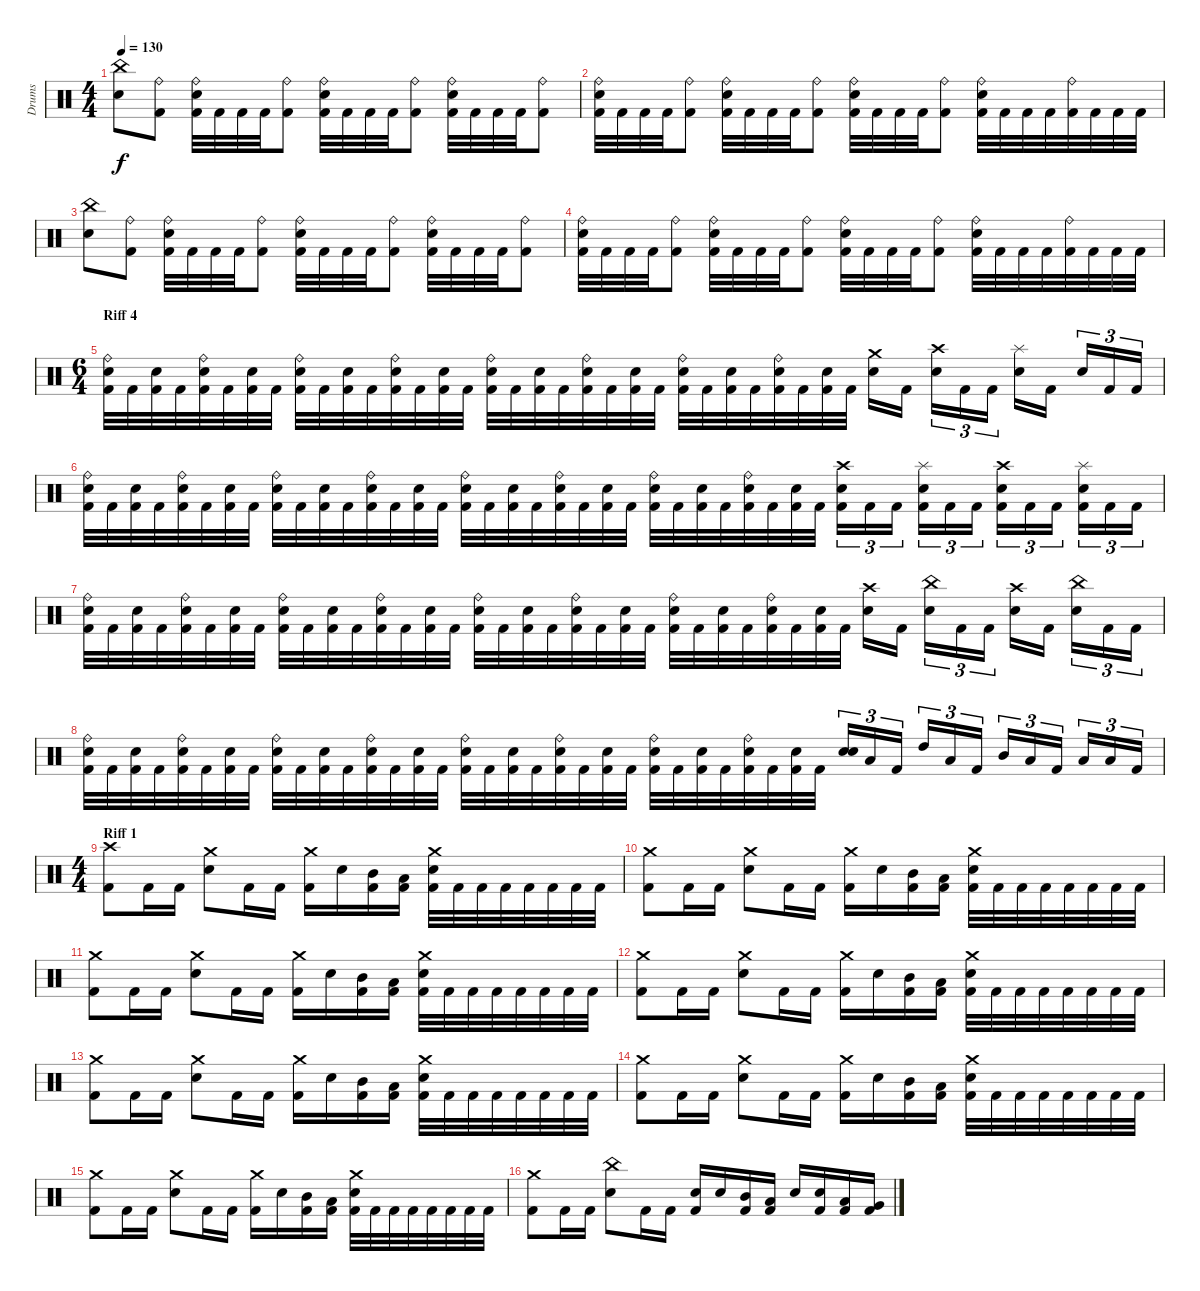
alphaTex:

\track ("Drums" "Drums") {instrument percussion}
\staff {score}
\articulation defaults
\ts (4 4)
\tempo 130
\clef neutral
\ks c
("Snare (hit) 2" "China (hit)").8{dy f} ("Kick (hit) 2" "Ride (bell)").8 ("Kick (hit) 2" "Snare (hit) 2" "Ride (bell)").32 "Kick (hit) 2".32 "Kick (hit) 2".32 "Kick (hit) 2".32 ("Kick (hit) 2" "Ride (bell)").8 ("Kick (hit) 2" "Snare (hit) 2" "Ride (bell)").32 "Kick (hit) 2".32 "Kick (hit) 2".32 "Kick (hit) 2".32 ("Kick (hit) 2" "Ride (bell)").8 ("Kick (hit) 2" "Snare (hit) 2" "Ride (bell)").32 "Kick (hit) 2".32 "Kick (hit) 2".32 "Kick (hit) 2".32 ("Kick (hit) 2" "Ride (bell)").8 |
("Kick (hit) 2" "Snare (hit) 2" "Ride (bell)").32 "Kick (hit) 2".32 "Kick (hit) 2".32 "Kick (hit) 2".32 ("Kick (hit) 2" "Ride (bell)").8 ("Kick (hit) 2" "Snare (hit) 2" "Ride (bell)").32 "Kick (hit) 2".32 "Kick (hit) 2".32 "Kick (hit) 2".32 ("Kick (hit) 2" "Ride (bell)").8 ("Kick (hit) 2" "Snare (hit) 2" "Ride (bell)").32 "Kick (hit) 2".32 "Kick (hit) 2".32 "Kick (hit) 2".32 ("Kick (hit) 2" "Ride (bell)").8 ("Kick (hit) 2" "Snare (hit) 2" "Ride (bell)").32 "Kick (hit) 2".32 "Kick (hit) 2".32 "Kick (hit) 2".32 ("Kick (hit) 2" "Ride (bell)").32 "Kick (hit) 2".32 "Kick (hit) 2".32 "Kick (hit) 2".32 |
("Snare (hit) 2" "China (hit)").8 ("Kick (hit) 2" "Ride (bell)").8 ("Kick (hit) 2" "Snare (hit) 2" "Ride (bell)").32 "Kick (hit) 2".32 "Kick (hit) 2".32 "Kick (hit) 2".32 ("Kick (hit) 2" "Ride (bell)").8 ("Kick (hit) 2" "Snare (hit) 2" "Ride (bell)").32 "Kick (hit) 2".32 "Kick (hit) 2".32 "Kick (hit) 2".32 ("Kick (hit) 2" "Ride (bell)").8 ("Kick (hit) 2" "Snare (hit) 2" "Ride (bell)").32 "Kick (hit) 2".32 "Kick (hit) 2".32 "Kick (hit) 2".32 ("Kick (hit) 2" "Ride (bell)").8 |
("Kick (hit) 2" "Snare (hit) 2" "Ride (bell)").32 "Kick (hit) 2".32 "Kick (hit) 2".32 "Kick (hit) 2".32 ("Kick (hit) 2" "Ride (bell)").8 ("Kick (hit) 2" "Snare (hit) 2" "Ride (bell)").32 "Kick (hit) 2".32 "Kick (hit) 2".32 "Kick (hit) 2".32 ("Kick (hit) 2" "Ride (bell)").8 ("Kick (hit) 2" "Snare (hit) 2" "Ride (bell)").32 "Kick (hit) 2".32 "Kick (hit) 2".32 "Kick (hit) 2".32 ("Kick (hit) 2" "Ride (bell)").8 ("Kick (hit) 2" "Snare (hit) 2" "Ride (bell)").32 "Kick (hit) 2".32 "Kick (hit) 2".32 "Kick (hit) 2".32 ("Kick (hit) 2" "Ride (bell)").32 "Kick (hit) 2".32 "Kick (hit) 2".32 "Kick (hit) 2".32 |
\ts (6 4)
\section ("" "Riff 4")
("Kick (hit) 2" "Snare (hit) 2" "Ride (bell)").32 "Kick (hit) 2".32 ("Kick (hit) 2" "Snare (hit) 2").32 "Kick (hit) 2".32 ("Kick (hit) 2" "Snare (hit) 2" "Ride (bell)").32 "Kick (hit) 2".32 ("Kick (hit) 2" "Snare (hit) 2").32 "Kick (hit) 2".32 ("Kick (hit) 2" "Snare (hit) 2" "Ride (bell)").32 "Kick (hit) 2".32 ("Kick (hit) 2" "Snare (hit) 2").32 "Kick (hit) 2".32 ("Kick (hit) 2" "Snare (hit) 2" "Ride (bell)").32 "Kick (hit) 2".32 ("Kick (hit) 2" "Snare (hit) 2").32 "Kick (hit) 2".32 ("Kick (hit) 2" "Snare (hit) 2" "Ride (bell)").32 "Kick (hit) 2".32 ("Kick (hit) 2" "Snare (hit) 2").32 "Kick (hit) 2".32 ("Kick (hit) 2" "Snare (hit) 2" "Ride (bell)").32 "Kick (hit) 2".32 ("Kick (hit) 2" "Snare (hit) 2").32 "Kick (hit) 2".32 ("Kick (hit) 2" "Snare (hit) 2" "Ride (bell)").32 "Kick (hit) 2".32 ("Kick (hit) 2" "Snare (hit) 2").32 "Kick (hit) 2".32 ("Kick (hit) 2" "Snare (hit) 2" "Ride (bell)").32 "Kick (hit) 2".32 ("Kick (hit) 2" "Snare (hit) 2").32 "Kick (hit) 2".32 ("Snare (hit) 2" "Crash medium (hit)").16 "Kick (hit) 2".16 ("Snare (hit) 2" "Crash high (hit)").16{tu (3 2)} "Kick (hit) 2".16{tu (3 2)} "Kick (hit) 2".16{tu (3 2)} ("Snare (hit) 2" "Splash (hit)").16 "Kick (hit) 2".16 "Snare (hit) 2".16{tu (3 2)} "Kick (hit) 2".16{tu (3 2)} "Kick (hit) 2".16{tu (3 2)} |
("Kick (hit) 2" "Snare (hit) 2" "Ride (bell)").32 "Kick (hit) 2".32 ("Kick (hit) 2" "Snare (hit) 2").32 "Kick (hit) 2".32 ("Kick (hit) 2" "Snare (hit) 2" "Ride (bell)").32 "Kick (hit) 2".32 ("Kick (hit) 2" "Snare (hit) 2").32 "Kick (hit) 2".32 ("Kick (hit) 2" "Snare (hit) 2" "Ride (bell)").32 "Kick (hit) 2".32 ("Kick (hit) 2" "Snare (hit) 2").32 "Kick (hit) 2".32 ("Kick (hit) 2" "Snare (hit) 2" "Ride (bell)").32 "Kick (hit) 2".32 ("Kick (hit) 2" "Snare (hit) 2").32 "Kick (hit) 2".32 ("Kick (hit) 2" "Snare (hit) 2" "Ride (bell)").32 "Kick (hit) 2".32 ("Kick (hit) 2" "Snare (hit) 2").32 "Kick (hit) 2".32 ("Kick (hit) 2" "Snare (hit) 2" "Ride (bell)").32 "Kick (hit) 2".32 ("Kick (hit) 2" "Snare (hit) 2").32 "Kick (hit) 2".32 ("Kick (hit) 2" "Snare (hit) 2" "Ride (bell)").32 "Kick (hit) 2".32 ("Kick (hit) 2" "Snare (hit) 2").32 "Kick (hit) 2".32 ("Kick (hit) 2" "Snare (hit) 2" "Ride (bell)").32 "Kick (hit) 2".32 ("Kick (hit) 2" "Snare (hit) 2").32 "Kick (hit) 2".32 ("Kick (hit) 2" "Snare (hit) 2" "Crash high (hit)").16{tu (3 2)} "Kick (hit) 2".16{tu (3 2)} "Kick (hit) 2".16{tu (3 2)} ("Kick (hit) 2" "Snare (hit) 2" "Splash (hit)").16{tu (3 2)} "Kick (hit) 2".16{tu (3 2)} "Kick (hit) 2".16{tu (3 2)} ("Kick (hit) 2" "Snare (hit) 2" "Crash high (hit)").16{tu (3 2)} "Kick (hit) 2".16{tu (3 2)} "Kick (hit) 2".16{tu (3 2)} ("Kick (hit) 2" "Snare (hit) 2" "Splash (hit)").16{tu (3 2)} "Kick (hit) 2".16{tu (3 2)} "Kick (hit) 2".16{tu (3 2)} |
("Kick (hit) 2" "Snare (hit) 2" "Ride (bell)").32 "Kick (hit) 2".32 ("Kick (hit) 2" "Snare (hit) 2").32 "Kick (hit) 2".32 ("Kick (hit) 2" "Snare (hit) 2" "Ride (bell)").32 "Kick (hit) 2".32 ("Kick (hit) 2" "Snare (hit) 2").32 "Kick (hit) 2".32 ("Kick (hit) 2" "Snare (hit) 2" "Ride (bell)").32 "Kick (hit) 2".32 ("Kick (hit) 2" "Snare (hit) 2").32 "Kick (hit) 2".32 ("Kick (hit) 2" "Snare (hit) 2" "Ride (bell)").32 "Kick (hit) 2".32 ("Kick (hit) 2" "Snare (hit) 2").32 "Kick (hit) 2".32 ("Kick (hit) 2" "Snare (hit) 2" "Ride (bell)").32 "Kick (hit) 2".32 ("Kick (hit) 2" "Snare (hit) 2").32 "Kick (hit) 2".32 ("Kick (hit) 2" "Snare (hit) 2" "Ride (bell)").32 "Kick (hit) 2".32 ("Kick (hit) 2" "Snare (hit) 2").32 "Kick (hit) 2".32 ("Kick (hit) 2" "Snare (hit) 2" "Ride (bell)").32 "Kick (hit) 2".32 ("Kick (hit) 2" "Snare (hit) 2").32 "Kick (hit) 2".32 ("Kick (hit) 2" "Snare (hit) 2" "Ride (bell)").32 "Kick (hit) 2".32 ("Kick (hit) 2" "Snare (hit) 2").32 "Kick (hit) 2".32 ("Snare (hit) 2" "Crash high (hit)").16 "Kick (hit) 2".16 ("Snare (hit) 2" "China (hit)").16{tu (3 2)} "Kick (hit) 2".16{tu (3 2)} "Kick (hit) 2".16{tu (3 2)} ("Snare (hit) 2" "Crash high (hit)").16 "Kick (hit) 2".16 ("Snare (hit) 2" "China (hit)").16{tu (3 2)} "Kick (hit) 2".16{tu (3 2)} "Kick (hit) 2".16{tu (3 2)} |
("Kick (hit) 2" "Snare (hit) 2" "Ride (bell)").32 "Kick (hit) 2".32 ("Kick (hit) 2" "Snare (hit) 2").32 "Kick (hit) 2".32 ("Kick (hit) 2" "Snare (hit) 2" "Ride (bell)").32 "Kick (hit) 2".32 ("Kick (hit) 2" "Snare (hit) 2").32 "Kick (hit) 2".32 ("Kick (hit) 2" "Snare (hit) 2" "Ride (bell)").32 "Kick (hit) 2".32 ("Kick (hit) 2" "Snare (hit) 2").32 "Kick (hit) 2".32 ("Kick (hit) 2" "Snare (hit) 2" "Ride (bell)").32 "Kick (hit) 2".32 ("Kick (hit) 2" "Snare (hit) 2").32 "Kick (hit) 2".32 ("Kick (hit) 2" "Snare (hit) 2" "Ride (bell)").32 "Kick (hit) 2".32 ("Kick (hit) 2" "Snare (hit) 2").32 "Kick (hit) 2".32 ("Kick (hit) 2" "Snare (hit) 2" "Ride (bell)").32 "Kick (hit) 2".32 ("Kick (hit) 2" "Snare (hit) 2").32 "Kick (hit) 2".32 ("Kick (hit) 2" "Snare (hit) 2" "Ride (bell)").32 "Kick (hit) 2".32 ("Kick (hit) 2" "Snare (hit) 2").32 "Kick (hit) 2".32 ("Kick (hit) 2" "Snare (hit) 2" "Ride (bell)").32 "Kick (hit) 2".32 ("Kick (hit) 2" "Snare (hit) 2").32 "Kick (hit) 2".32 ("Snare (hit) 2" "Electric Snare (hit)").16{tu (3 2)} "Low Floor Tom (hit)".16{tu (3 2)} "Kick (hit) 2".16{tu (3 2)} "High Tom (hit)".16{tu (3 2)} "Low Floor Tom (hit)".16{tu (3 2)} "Kick (hit) 2".16{tu (3 2)} "Mid Tom (hit)".16{tu (3 2)} "Low Floor Tom (hit)".16{tu (3 2)} "Kick (hit) 2".16{tu (3 2)} "Low Tom (hit)".16{tu (3 2)} "Low Floor Tom (hit)".16{tu (3 2)} "Kick (hit) 2".16{tu (3 2)} |
\ts (4 4)
\section ("" "Riff 1")
("Kick (hit) 2" "Crash high (hit)").8 "Kick (hit) 2".16 "Kick (hit) 2".16 ("Snare (hit) 2" "Crash medium (hit)").8 "Kick (hit) 2".16 "Kick (hit) 2".16 ("Kick (hit) 2" "Crash medium (hit)").16 "Snare (hit) 2".16 ("Kick (hit) 2" "Mid Tom (hit)").16 ("Kick (hit) 2" "Low Tom (hit)").16 ("Kick (hit) 2" "Snare (hit) 2" "Crash medium (hit)").32 "Kick (hit) 2".32 "Kick (hit) 2".32 "Kick (hit) 2".32 "Kick (hit) 2".32 "Kick (hit) 2".32 "Kick (hit) 2".32 "Kick (hit) 2".32 |
("Kick (hit) 2" "Crash medium (hit)").8 "Kick (hit) 2".16 "Kick (hit) 2".16 ("Snare (hit) 2" "Crash medium (hit)").8 "Kick (hit) 2".16 "Kick (hit) 2".16 ("Kick (hit) 2" "Crash medium (hit)").16 "Snare (hit) 2".16 ("Kick (hit) 2" "Mid Tom (hit)").16 ("Kick (hit) 2" "Low Tom (hit)").16 ("Kick (hit) 2" "Snare (hit) 2" "Crash medium (hit)").32 "Kick (hit) 2".32 "Kick (hit) 2".32 "Kick (hit) 2".32 "Kick (hit) 2".32 "Kick (hit) 2".32 "Kick (hit) 2".32 "Kick (hit) 2".32 |
("Kick (hit) 2" "Crash medium (hit)").8 "Kick (hit) 2".16 "Kick (hit) 2".16 ("Snare (hit) 2" "Crash medium (hit)").8 "Kick (hit) 2".16 "Kick (hit) 2".16 ("Kick (hit) 2" "Crash medium (hit)").16 "Snare (hit) 2".16 ("Kick (hit) 2" "Mid Tom (hit)").16 ("Kick (hit) 2" "Low Tom (hit)").16 ("Kick (hit) 2" "Snare (hit) 2" "Crash medium (hit)").32 "Kick (hit) 2".32 "Kick (hit) 2".32 "Kick (hit) 2".32 "Kick (hit) 2".32 "Kick (hit) 2".32 "Kick (hit) 2".32 "Kick (hit) 2".32 |
("Kick (hit) 2" "Crash medium (hit)").8 "Kick (hit) 2".16 "Kick (hit) 2".16 ("Snare (hit) 2" "Crash medium (hit)").8 "Kick (hit) 2".16 "Kick (hit) 2".16 ("Kick (hit) 2" "Crash medium (hit)").16 "Snare (hit) 2".16 ("Kick (hit) 2" "Mid Tom (hit)").16 ("Kick (hit) 2" "Low Tom (hit)").16 ("Kick (hit) 2" "Snare (hit) 2" "Crash medium (hit)").32 "Kick (hit) 2".32 "Kick (hit) 2".32 "Kick (hit) 2".32 "Kick (hit) 2".32 "Kick (hit) 2".32 "Kick (hit) 2".32 "Kick (hit) 2".32 |
("Kick (hit) 2" "Crash medium (hit)").8 "Kick (hit) 2".16 "Kick (hit) 2".16 ("Snare (hit) 2" "Crash medium (hit)").8 "Kick (hit) 2".16 "Kick (hit) 2".16 ("Kick (hit) 2" "Crash medium (hit)").16 "Snare (hit) 2".16 ("Kick (hit) 2" "Mid Tom (hit)").16 ("Kick (hit) 2" "Low Tom (hit)").16 ("Kick (hit) 2" "Snare (hit) 2" "Crash medium (hit)").32 "Kick (hit) 2".32 "Kick (hit) 2".32 "Kick (hit) 2".32 "Kick (hit) 2".32 "Kick (hit) 2".32 "Kick (hit) 2".32 "Kick (hit) 2".32 |
("Kick (hit) 2" "Crash medium (hit)").8 "Kick (hit) 2".16 "Kick (hit) 2".16 ("Snare (hit) 2" "Crash medium (hit)").8 "Kick (hit) 2".16 "Kick (hit) 2".16 ("Kick (hit) 2" "Crash medium (hit)").16 "Snare (hit) 2".16 ("Kick (hit) 2" "Mid Tom (hit)").16 ("Kick (hit) 2" "Low Tom (hit)").16 ("Kick (hit) 2" "Snare (hit) 2" "Crash medium (hit)").32 "Kick (hit) 2".32 "Kick (hit) 2".32 "Kick (hit) 2".32 "Kick (hit) 2".32 "Kick (hit) 2".32 "Kick (hit) 2".32 "Kick (hit) 2".32 |
("Kick (hit) 2" "Crash medium (hit)").8 "Kick (hit) 2".16 "Kick (hit) 2".16 ("Snare (hit) 2" "Crash medium (hit)").8 "Kick (hit) 2".16 "Kick (hit) 2".16 ("Kick (hit) 2" "Crash medium (hit)").16 "Snare (hit) 2".16 ("Kick (hit) 2" "Mid Tom (hit)").16 ("Kick (hit) 2" "Low Tom (hit)").16 ("Kick (hit) 2" "Snare (hit) 2" "Crash medium (hit)").32 "Kick (hit) 2".32 "Kick (hit) 2".32 "Kick (hit) 2".32 "Kick (hit) 2".32 "Kick (hit) 2".32 "Kick (hit) 2".32 "Kick (hit) 2".32 |
("Kick (hit) 2" "Crash medium (hit)").8 "Kick (hit) 2".16 "Kick (hit) 2".16 ("Snare (hit) 2" "China (hit)").8 "Kick (hit) 2".16 "Kick (hit) 2".16 ("Kick (hit) 2" "Snare (hit) 2").16 "Snare (hit) 2".16 ("Kick (hit) 2" "Mid Tom (hit)").16 ("Kick (hit) 2" "Low Tom (hit)").16 "Snare (hit) 2".16 ("Kick (hit) 2" "Snare (hit) 2").16 ("Kick (hit) 2" "Low Tom (hit)").16 ("Kick (hit) 2" "Very Low Tom (hit)").16
